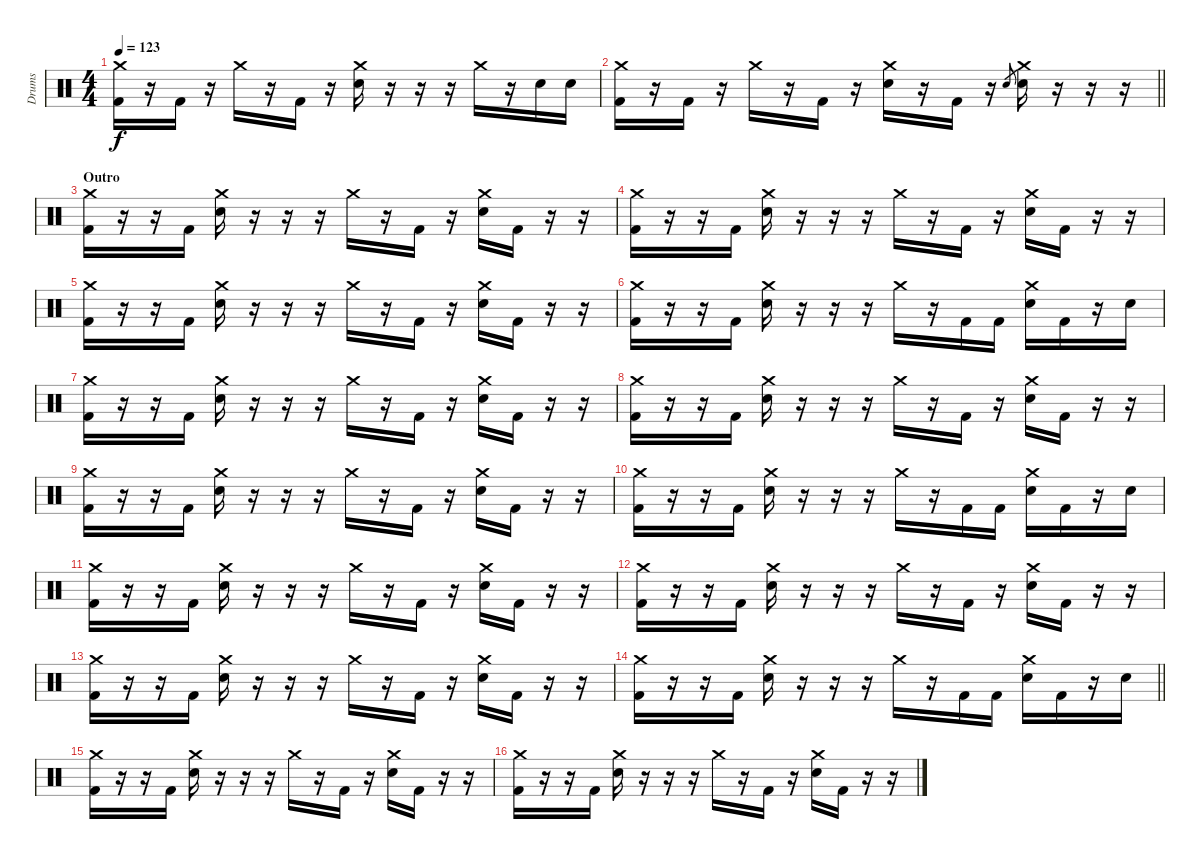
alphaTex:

\track ("Drums" "Drums") {instrument percussion}
\staff {score}
\articulation defaults
\ts (4 4)
\tempo 123
\clef neutral
\ks c
("Crash medium (hit)" "Kick (hit) 2").16{dy f} r.16 "Kick (hit) 2".16 r.16 "Crash medium (hit)".16 r.16 "Kick (hit) 2".16 r.16 ("Crash medium (hit)" "Electric Snare (hit)").16 r.16 r.16 r.16 "Crash medium (hit)".16 r.16 "Electric Snare (hit)".16 "Electric Snare (hit)".16 |
\barLineRight lightlight
("Crash medium (hit)" "Kick (hit) 2").16 r.16 "Kick (hit) 2".16 r.16 "Crash medium (hit)".16 r.16 "Kick (hit) 2".16 r.16 ("Crash medium (hit)" "Electric Snare (hit)").16 r.16 "Kick (hit) 2".16 r.16 "Electric Snare (hit)".8{gr} ("Crash medium (hit)" "Electric Snare (hit)").16 r.16 r.16 r.16 |
\section ("" "Outro")
("Crash medium (hit)" "Kick (hit) 2").16 r.16 r.16 "Kick (hit) 2".16 ("Crash medium (hit)" "Electric Snare (hit)").16 r.16 r.16 r.16 "Crash medium (hit)".16 r.16 "Kick (hit) 2".16 r.16 ("Crash medium (hit)" "Electric Snare (hit)").16 "Kick (hit) 2".16 r.16 r.16 |
("Crash medium (hit)" "Kick (hit) 2").16 r.16 r.16 "Kick (hit) 2".16 ("Crash medium (hit)" "Electric Snare (hit)").16 r.16 r.16 r.16 "Crash medium (hit)".16 r.16 "Kick (hit) 2".16 r.16 ("Crash medium (hit)" "Electric Snare (hit)").16 "Kick (hit) 2".16 r.16 r.16 |
("Crash medium (hit)" "Kick (hit) 2").16 r.16 r.16 "Kick (hit) 2".16 ("Crash medium (hit)" "Electric Snare (hit)").16 r.16 r.16 r.16 "Crash medium (hit)".16 r.16 "Kick (hit) 2".16 r.16 ("Crash medium (hit)" "Electric Snare (hit)").16 "Kick (hit) 2".16 r.16 r.16 |
("Crash medium (hit)" "Kick (hit) 2").16 r.16 r.16 "Kick (hit) 2".16 ("Crash medium (hit)" "Electric Snare (hit)").16 r.16 r.16 r.16 "Crash medium (hit)".16 r.16 "Kick (hit) 2".16 "Kick (hit) 2".16 ("Crash medium (hit)" "Electric Snare (hit)").16 "Kick (hit) 2".16 r.16 "Electric Snare (hit)".16 |
("Crash medium (hit)" "Kick (hit) 2").16 r.16 r.16 "Kick (hit) 2".16 ("Crash medium (hit)" "Electric Snare (hit)").16 r.16 r.16 r.16 "Crash medium (hit)".16 r.16 "Kick (hit) 2".16 r.16 ("Crash medium (hit)" "Electric Snare (hit)").16 "Kick (hit) 2".16 r.16 r.16 |
("Crash medium (hit)" "Kick (hit) 2").16 r.16 r.16 "Kick (hit) 2".16 ("Crash medium (hit)" "Electric Snare (hit)").16 r.16 r.16 r.16 "Crash medium (hit)".16 r.16 "Kick (hit) 2".16 r.16 ("Crash medium (hit)" "Electric Snare (hit)").16 "Kick (hit) 2".16 r.16 r.16 |
("Crash medium (hit)" "Kick (hit) 2").16 r.16 r.16 "Kick (hit) 2".16 ("Crash medium (hit)" "Electric Snare (hit)").16 r.16 r.16 r.16 "Crash medium (hit)".16 r.16 "Kick (hit) 2".16 r.16 ("Crash medium (hit)" "Electric Snare (hit)").16 "Kick (hit) 2".16 r.16 r.16 |
("Crash medium (hit)" "Kick (hit) 2").16 r.16 r.16 "Kick (hit) 2".16 ("Crash medium (hit)" "Electric Snare (hit)").16 r.16 r.16 r.16 "Crash medium (hit)".16 r.16 "Kick (hit) 2".16 "Kick (hit) 2".16 ("Crash medium (hit)" "Electric Snare (hit)").16 "Kick (hit) 2".16 r.16 "Electric Snare (hit)".16 |
("Crash medium (hit)" "Kick (hit) 2").16 r.16 r.16 "Kick (hit) 2".16 ("Crash medium (hit)" "Electric Snare (hit)").16 r.16 r.16 r.16 "Crash medium (hit)".16 r.16 "Kick (hit) 2".16 r.16 ("Crash medium (hit)" "Electric Snare (hit)").16 "Kick (hit) 2".16 r.16 r.16 |
("Crash medium (hit)" "Kick (hit) 2").16 r.16 r.16 "Kick (hit) 2".16 ("Crash medium (hit)" "Electric Snare (hit)").16 r.16 r.16 r.16 "Crash medium (hit)".16 r.16 "Kick (hit) 2".16 r.16 ("Crash medium (hit)" "Electric Snare (hit)").16 "Kick (hit) 2".16 r.16 r.16 |
("Crash medium (hit)" "Kick (hit) 2").16 r.16 r.16 "Kick (hit) 2".16 ("Crash medium (hit)" "Electric Snare (hit)").16 r.16 r.16 r.16 "Crash medium (hit)".16 r.16 "Kick (hit) 2".16 r.16 ("Crash medium (hit)" "Electric Snare (hit)").16 "Kick (hit) 2".16 r.16 r.16 |
\barLineRight lightlight
("Crash medium (hit)" "Kick (hit) 2").16 r.16 r.16 "Kick (hit) 2".16 ("Crash medium (hit)" "Electric Snare (hit)").16 r.16 r.16 r.16 "Crash medium (hit)".16 r.16 "Kick (hit) 2".16 "Kick (hit) 2".16 ("Crash medium (hit)" "Electric Snare (hit)").16 "Kick (hit) 2".16 r.16 "Electric Snare (hit)".16 |
("Crash medium (hit)" "Kick (hit) 2").16 r.16 r.16 "Kick (hit) 2".16 ("Crash medium (hit)" "Electric Snare (hit)").16 r.16 r.16 r.16 "Crash medium (hit)".16 r.16 "Kick (hit) 2".16 r.16 ("Crash medium (hit)" "Electric Snare (hit)").16 "Kick (hit) 2".16 r.16 r.16 |
("Crash medium (hit)" "Kick (hit) 2").16 r.16 r.16 "Kick (hit) 2".16 ("Crash medium (hit)" "Electric Snare (hit)").16 r.16 r.16 r.16 "Crash medium (hit)".16 r.16 "Kick (hit) 2".16 r.16 ("Crash medium (hit)" "Electric Snare (hit)").16 "Kick (hit) 2".16 r.16 r.16
